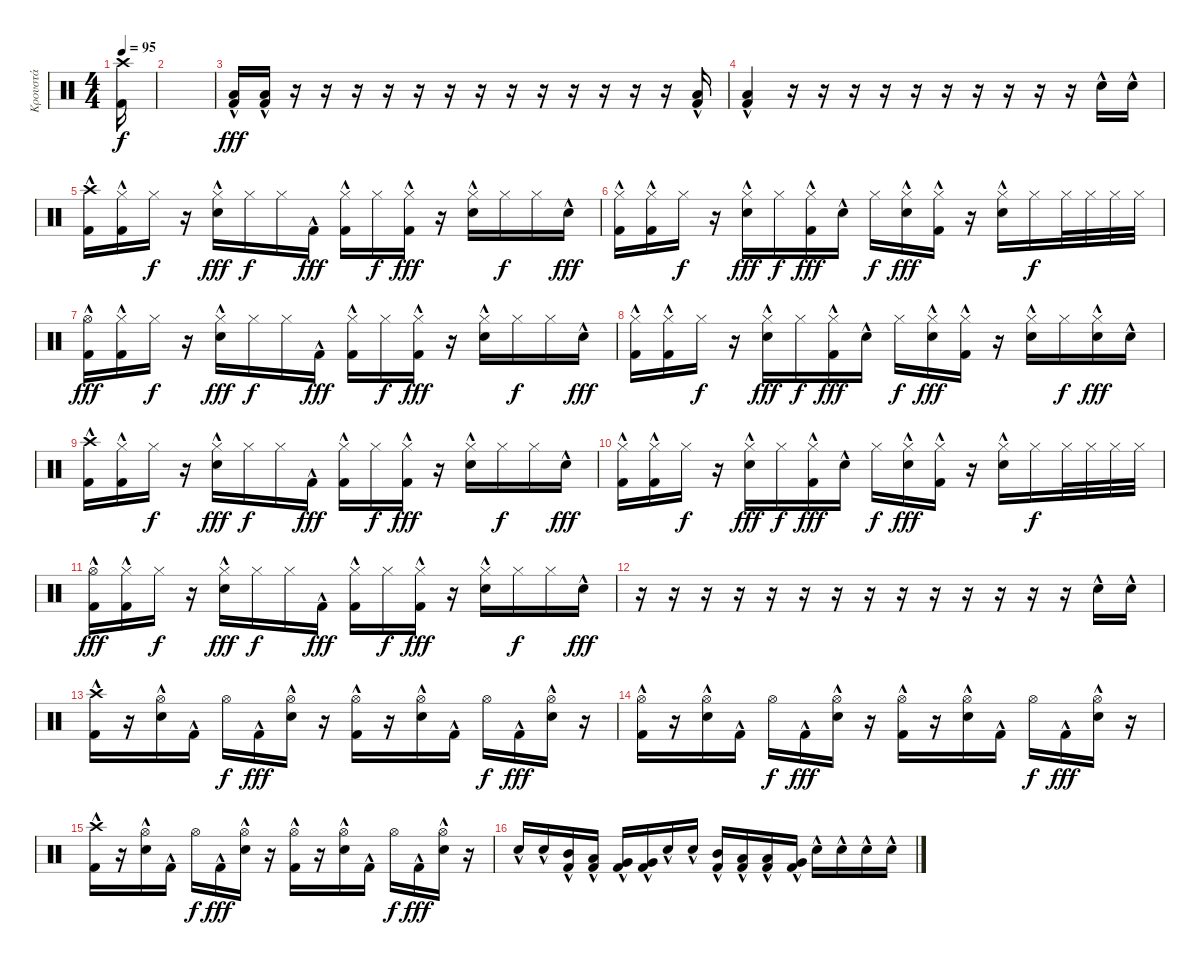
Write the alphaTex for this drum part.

\track ("Κρουστά" "Κρουστά") {instrument percussion}
\staff {score}
\articulation defaults
\ts (4 4)
\tempo 95
\clef neutral
\ks c
("Crash high (hit)" "Kick (hit) 2").16{dy f} |
|
("Low Tom (hit)" "Kick (hit) 2"{hac}).16{dy fff} ("Low Tom (hit)" "Kick (hit) 2"{hac}).16 r.16 r.16 r.16 r.16 r.16 r.16 r.16 r.16 r.16 r.16 r.16 r.16 r.16 ("Low Tom (hit)" "Kick (hit) 2"{hac}).16 |
("Low Tom (hit)" "Kick (hit) 2"{hac}).4 r.16 r.16 r.16 r.16 r.16 r.16 r.16 r.16 r.16 r.16 "Electric Snare (hit)"{hac}.16 "Electric Snare (hit)"{hac}.16 |
("Crash high (hit)" "Kick (hit) 2"{hac}).16 ("Hi-Hat (closed)" "Kick (hit) 2"{hac}).16 "Hi-Hat (closed)".16{dy f} r.16 ("Hi-Hat (closed)" "Electric Snare (hit)"{hac}).16{dy fff} "Hi-Hat (closed)".16{dy f} "Hi-Hat (closed)".16 "Kick (hit) 2"{hac}.16{dy fff} ("Hi-Hat (closed)" "Kick (hit) 2"{hac}).16 "Hi-Hat (closed)".16{dy f} ("Hi-Hat (closed)" "Kick (hit) 2"{hac}).16{dy fff} r.16 ("Hi-Hat (closed)" "Electric Snare (hit)"{hac}).16 "Hi-Hat (closed)".16{dy f} "Hi-Hat (closed)".16 "Electric Snare (hit)"{hac}.16{dy fff} |
("Hi-Hat (closed)" "Kick (hit) 2"{hac}).16 ("Hi-Hat (closed)" "Kick (hit) 2"{hac}).16 "Hi-Hat (closed)".16{dy f} r.16 ("Hi-Hat (closed)" "Electric Snare (hit)"{hac}).16{dy fff} "Hi-Hat (closed)".16{dy f} ("Hi-Hat (closed)" "Kick (hit) 2"{hac}).16{dy fff} "Electric Snare (hit)"{hac}.16 "Hi-Hat (closed)".16{dy f} ("Hi-Hat (closed)" "Electric Snare (hit)"{hac}).16{dy fff} ("Hi-Hat (closed)" "Kick (hit) 2"{hac}).16 r.16 ("Hi-Hat (closed)" "Electric Snare (hit)"{hac}).16 "Hi-Hat (closed)".16{dy f} "Hi-Hat (closed)".32 "Hi-Hat (closed)".32 "Hi-Hat (closed)".32 "Hi-Hat (closed)".32 |
("Hi-Hat (open)" "Kick (hit) 2"{hac}).16{dy fff} ("Hi-Hat (closed)" "Kick (hit) 2"{hac}).16 "Hi-Hat (closed)".16{dy f} r.16 ("Hi-Hat (closed)" "Electric Snare (hit)"{hac}).16{dy fff} "Hi-Hat (closed)".16{dy f} "Hi-Hat (closed)".16 "Kick (hit) 2"{hac}.16{dy fff} ("Hi-Hat (closed)" "Kick (hit) 2"{hac}).16 "Hi-Hat (closed)".16{dy f} ("Hi-Hat (closed)" "Kick (hit) 2"{hac}).16{dy fff} r.16 ("Hi-Hat (closed)" "Electric Snare (hit)"{hac}).16 "Hi-Hat (closed)".16{dy f} "Hi-Hat (closed)".16 "Electric Snare (hit)"{hac}.16{dy fff} |
("Hi-Hat (closed)" "Kick (hit) 2"{hac}).16 ("Hi-Hat (closed)" "Kick (hit) 2"{hac}).16 "Hi-Hat (closed)".16{dy f} r.16 ("Hi-Hat (closed)" "Electric Snare (hit)"{hac}).16{dy fff} "Hi-Hat (closed)".16{dy f} ("Hi-Hat (closed)" "Kick (hit) 2"{hac}).16{dy fff} "Electric Snare (hit)"{hac}.16 "Hi-Hat (closed)".16{dy f} ("Hi-Hat (closed)" "Electric Snare (hit)"{hac}).16{dy fff} ("Hi-Hat (closed)" "Kick (hit) 2"{hac}).16 r.16 ("Hi-Hat (closed)" "Electric Snare (hit)"{hac}).16 "Hi-Hat (closed)".16{dy f} ("Hi-Hat (closed)" "Electric Snare (hit)"{hac}).16{dy fff} "Electric Snare (hit)"{hac}.16 |
("Crash high (hit)" "Kick (hit) 2"{hac}).16 ("Hi-Hat (closed)" "Kick (hit) 2"{hac}).16 "Hi-Hat (closed)".16{dy f} r.16 ("Hi-Hat (closed)" "Electric Snare (hit)"{hac}).16{dy fff} "Hi-Hat (closed)".16{dy f} "Hi-Hat (closed)".16 "Kick (hit) 2"{hac}.16{dy fff} ("Hi-Hat (closed)" "Kick (hit) 2"{hac}).16 "Hi-Hat (closed)".16{dy f} ("Hi-Hat (closed)" "Kick (hit) 2"{hac}).16{dy fff} r.16 ("Hi-Hat (closed)" "Electric Snare (hit)"{hac}).16 "Hi-Hat (closed)".16{dy f} "Hi-Hat (closed)".16 "Electric Snare (hit)"{hac}.16{dy fff} |
("Hi-Hat (closed)" "Kick (hit) 2"{hac}).16 ("Hi-Hat (closed)" "Kick (hit) 2"{hac}).16 "Hi-Hat (closed)".16{dy f} r.16 ("Hi-Hat (closed)" "Electric Snare (hit)"{hac}).16{dy fff} "Hi-Hat (closed)".16{dy f} ("Hi-Hat (closed)" "Kick (hit) 2"{hac}).16{dy fff} "Electric Snare (hit)"{hac}.16 "Hi-Hat (closed)".16{dy f} ("Hi-Hat (closed)" "Electric Snare (hit)"{hac}).16{dy fff} ("Hi-Hat (closed)" "Kick (hit) 2"{hac}).16 r.16 ("Hi-Hat (closed)" "Electric Snare (hit)"{hac}).16 "Hi-Hat (closed)".16{dy f} "Hi-Hat (closed)".32 "Hi-Hat (closed)".32 "Hi-Hat (closed)".32 "Hi-Hat (closed)".32 |
("Hi-Hat (open)" "Kick (hit) 2"{hac}).16{dy fff} ("Hi-Hat (closed)" "Kick (hit) 2"{hac}).16 "Hi-Hat (closed)".16{dy f} r.16 ("Hi-Hat (closed)" "Electric Snare (hit)"{hac}).16{dy fff} "Hi-Hat (closed)".16{dy f} "Hi-Hat (closed)".16 "Kick (hit) 2"{hac}.16{dy fff} ("Hi-Hat (closed)" "Kick (hit) 2"{hac}).16 "Hi-Hat (closed)".16{dy f} ("Hi-Hat (closed)" "Kick (hit) 2"{hac}).16{dy fff} r.16 ("Hi-Hat (closed)" "Electric Snare (hit)"{hac}).16 "Hi-Hat (closed)".16{dy f} "Hi-Hat (closed)".16 "Electric Snare (hit)"{hac}.16{dy fff} |
r.16 r.16 r.16 r.16 r.16 r.16 r.16 r.16 r.16 r.16 r.16 r.16 r.16 r.16 "Electric Snare (hit)"{hac}.16 "Electric Snare (hit)"{hac}.16 |
("Crash high (hit)" "Kick (hit) 2"{hac}).16 r.16 ("Hi-Hat (open)" "Electric Snare (hit)"{hac}).16 "Kick (hit) 2"{hac}.16 "Hi-Hat (open)".16{dy f} "Kick (hit) 2"{hac}.16{dy fff} ("Hi-Hat (open)" "Electric Snare (hit)"{hac}).16 r.16 ("Hi-Hat (open)" "Kick (hit) 2"{hac}).16 r.16 ("Hi-Hat (open)" "Electric Snare (hit)"{hac}).16 "Kick (hit) 2"{hac}.16 "Hi-Hat (open)".16{dy f} "Kick (hit) 2"{hac}.16{dy fff} ("Hi-Hat (open)" "Electric Snare (hit)"{hac}).16 r.16 |
("Hi-Hat (open)" "Kick (hit) 2"{hac}).16 r.16 ("Hi-Hat (open)" "Electric Snare (hit)"{hac}).16 "Kick (hit) 2"{hac}.16 "Hi-Hat (open)".16{dy f} "Kick (hit) 2"{hac}.16{dy fff} ("Hi-Hat (open)" "Electric Snare (hit)"{hac}).16 r.16 ("Hi-Hat (open)" "Kick (hit) 2"{hac}).16 r.16 ("Hi-Hat (open)" "Electric Snare (hit)"{hac}).16 "Kick (hit) 2"{hac}.16 "Hi-Hat (open)".16{dy f} "Kick (hit) 2"{hac}.16{dy fff} ("Hi-Hat (open)" "Electric Snare (hit)"{hac}).16 r.16 |
("Crash high (hit)" "Kick (hit) 2"{hac}).16 r.16 ("Hi-Hat (open)" "Electric Snare (hit)"{hac}).16 "Kick (hit) 2"{hac}.16 "Hi-Hat (open)".16{dy f} "Kick (hit) 2"{hac}.16{dy fff} ("Hi-Hat (open)" "Electric Snare (hit)"{hac}).16 r.16 ("Hi-Hat (open)" "Kick (hit) 2"{hac}).16 r.16 ("Hi-Hat (open)" "Electric Snare (hit)"{hac}).16 "Kick (hit) 2"{hac}.16 "Hi-Hat (open)".16{dy f} "Kick (hit) 2"{hac}.16{dy fff} ("Hi-Hat (open)" "Electric Snare (hit)"{hac}).16 r.16 |
"Electric Snare (hit)"{hac}.16 "Electric Snare (hit)"{hac}.16 ("Mid Tom (hit)" "Kick (hit) 2"{hac}).16 ("Low Tom (hit)" "Kick (hit) 2"{hac}).16 ("Very Low Tom (hit)" "Kick (hit) 2"{hac}).16 ("Very Low Tom (hit)" "Kick (hit) 2"{hac}).16 "Electric Snare (hit)"{hac}.16 "Electric Snare (hit)"{hac}.16 ("Mid Tom (hit)" "Kick (hit) 2"{hac}).16 ("Low Tom (hit)" "Kick (hit) 2"{hac}).16 ("Low Tom (hit)" "Kick (hit) 2"{hac}).16 ("Very Low Tom (hit)" "Kick (hit) 2"{hac}).16 "Electric Snare (hit)"{hac}.16 "Electric Snare (hit)"{hac}.16 "Electric Snare (hit)"{hac}.16 "Electric Snare (hit)"{hac}.16
